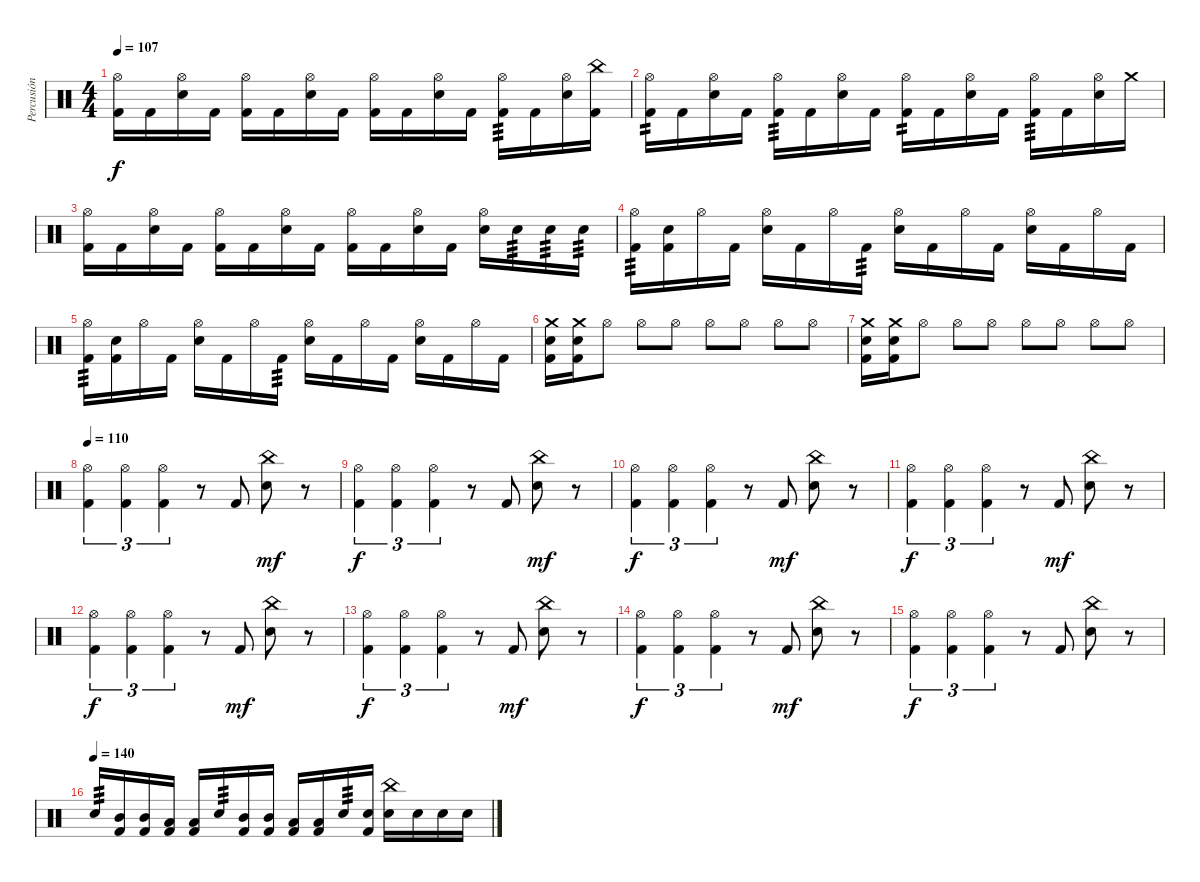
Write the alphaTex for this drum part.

\track ("Percusión" "Percusión") {instrument percussion}
\staff {score}
\articulation defaults
\ts (4 4)
\tempo 107
\clef neutral
\ks c
("Hi-Hat (open)" "Kick (hit) 2").16{dy f} "Kick (hit) 2".16 ("Hi-Hat (open)" "Electric Snare (hit)").16 "Kick (hit) 2".16 ("Hi-Hat (open)" "Kick (hit) 2").16 "Kick (hit) 2".16 ("Hi-Hat (open)" "Electric Snare (hit)").16 "Kick (hit) 2".16 ("Hi-Hat (open)" "Kick (hit) 2").16 "Kick (hit) 2".16 ("Hi-Hat (open)" "Electric Snare (hit)").16 "Kick (hit) 2".16 ("Hi-Hat (open)" "Kick (hit) 2").16{tp 3} "Kick (hit) 2".16 ("Hi-Hat (open)" "Electric Snare (hit)").16 ("China (hit)" "Kick (hit) 2").16 |
("Hi-Hat (open)" "Kick (hit) 2").16{tp 2} "Kick (hit) 2".16 ("Hi-Hat (open)" "Electric Snare (hit)").16 "Kick (hit) 2".16 ("Hi-Hat (open)" "Kick (hit) 2").16{tp 3} "Kick (hit) 2".16 ("Hi-Hat (open)" "Electric Snare (hit)").16 "Kick (hit) 2".16 ("Hi-Hat (open)" "Kick (hit) 2").16{tp 2} "Kick (hit) 2".16 ("Hi-Hat (open)" "Electric Snare (hit)").16 "Kick (hit) 2".16 ("Hi-Hat (open)" "Kick (hit) 2").16{tp 3} "Kick (hit) 2".16 ("Hi-Hat (open)" "Electric Snare (hit)").16 "Crash medium (hit)".16 |
("Hi-Hat (open)" "Kick (hit) 2").16 "Kick (hit) 2".16 ("Hi-Hat (open)" "Electric Snare (hit)").16 "Kick (hit) 2".16 ("Hi-Hat (open)" "Kick (hit) 2").16 "Kick (hit) 2".16 ("Hi-Hat (open)" "Electric Snare (hit)").16 "Kick (hit) 2".16 ("Hi-Hat (open)" "Kick (hit) 2").16 "Kick (hit) 2".16 ("Hi-Hat (open)" "Electric Snare (hit)").16 "Kick (hit) 2".16 ("Hi-Hat (open)" "Electric Snare (hit)").16 "Electric Snare (hit)".16{tp 3} "Electric Snare (hit)".16{tp 3} "Electric Snare (hit)".16{tp 3} |
("Hi-Hat (open)" "Kick (hit) 2").16{tp 3} ("Electric Snare (hit)" "Kick (hit) 2").16 "Hi-Hat (open)".16 "Kick (hit) 2".16 ("Hi-Hat (open)" "Electric Snare (hit)").16 "Kick (hit) 2".16 "Hi-Hat (open)".16 "Kick (hit) 2".16{tp 3} ("Hi-Hat (open)" "Electric Snare (hit)").16 "Kick (hit) 2".16 "Hi-Hat (open)".16 "Kick (hit) 2".16 ("Hi-Hat (open)" "Electric Snare (hit)").16 "Kick (hit) 2".16 "Hi-Hat (open)".16 "Kick (hit) 2".16 |
("Hi-Hat (open)" "Kick (hit) 2").16{tp 3} ("Electric Snare (hit)" "Kick (hit) 2").16 "Hi-Hat (open)".16 "Kick (hit) 2".16 ("Hi-Hat (open)" "Electric Snare (hit)").16 "Kick (hit) 2".16 "Hi-Hat (open)".16 "Kick (hit) 2".16{tp 3} ("Hi-Hat (open)" "Electric Snare (hit)").16 "Kick (hit) 2".16 "Hi-Hat (open)".16 "Kick (hit) 2".16 ("Hi-Hat (open)" "Electric Snare (hit)").16 "Kick (hit) 2".16 "Hi-Hat (open)".16 "Kick (hit) 2".16 |
("Crash medium (hit)" "Electric Snare (hit)" "Kick (hit) 2").16 ("Crash medium (hit)" "Electric Snare (hit)" "Kick (hit) 2").16 "Hi-Hat (open)".8 "Hi-Hat (open)".8 "Hi-Hat (open)".8 "Hi-Hat (open)".8 "Hi-Hat (open)".8 "Hi-Hat (open)".8 "Hi-Hat (open)".8 |
("Crash medium (hit)" "Electric Snare (hit)" "Kick (hit) 2").16 ("Crash medium (hit)" "Electric Snare (hit)" "Kick (hit) 2").16 "Hi-Hat (open)".8 "Hi-Hat (open)".8 "Hi-Hat (open)".8 "Hi-Hat (open)".8 "Hi-Hat (open)".8 "Hi-Hat (open)".8 "Hi-Hat (open)".8 |
\tempo 110
("Hi-Hat (open)" "Kick (hit) 2").4{tu (3 2)} ("Hi-Hat (open)" "Kick (hit) 2").4{tu (3 2)} ("Hi-Hat (open)" "Kick (hit) 2").4{tu (3 2)} r.8 "Kick (hit) 2".8 ("China (hit)" "Electric Snare (hit)").8{dy mf} r.8 |
("Hi-Hat (open)" "Kick (hit) 2").4{tu (3 2) dy f} ("Hi-Hat (open)" "Kick (hit) 2").4{tu (3 2)} ("Hi-Hat (open)" "Kick (hit) 2").4{tu (3 2)} r.8 "Kick (hit) 2".8 ("China (hit)" "Electric Snare (hit)").8{dy mf} r.8 |
("Hi-Hat (open)" "Kick (hit) 2").4{tu (3 2) dy f} ("Hi-Hat (open)" "Kick (hit) 2").4{tu (3 2)} ("Hi-Hat (open)" "Kick (hit) 2").4{tu (3 2)} r.8 "Kick (hit) 2".8{dy mf} ("China (hit)" "Electric Snare (hit)").8 r.8 |
("Hi-Hat (open)" "Kick (hit) 2").4{tu (3 2) dy f} ("Hi-Hat (open)" "Kick (hit) 2").4{tu (3 2)} ("Hi-Hat (open)" "Kick (hit) 2").4{tu (3 2)} r.8 "Kick (hit) 2".8{dy mf} ("China (hit)" "Electric Snare (hit)").8 r.8 |
("Hi-Hat (open)" "Kick (hit) 2").4{tu (3 2) dy f} ("Hi-Hat (open)" "Kick (hit) 2").4{tu (3 2)} ("Hi-Hat (open)" "Kick (hit) 2").4{tu (3 2)} r.8 "Kick (hit) 2".8{dy mf} ("China (hit)" "Electric Snare (hit)").8 r.8 |
("Hi-Hat (open)" "Kick (hit) 2").4{tu (3 2) dy f} ("Hi-Hat (open)" "Kick (hit) 2").4{tu (3 2)} ("Hi-Hat (open)" "Kick (hit) 2").4{tu (3 2)} r.8 "Kick (hit) 2".8{dy mf} ("China (hit)" "Electric Snare (hit)").8 r.8 |
("Hi-Hat (open)" "Kick (hit) 2").4{tu (3 2) dy f} ("Hi-Hat (open)" "Kick (hit) 2").4{tu (3 2)} ("Hi-Hat (open)" "Kick (hit) 2").4{tu (3 2)} r.8 "Kick (hit) 2".8{dy mf} ("China (hit)" "Electric Snare (hit)").8 r.8 |
("Hi-Hat (open)" "Kick (hit) 2").4{tu (3 2) dy f} ("Hi-Hat (open)" "Kick (hit) 2").4{tu (3 2)} ("Hi-Hat (open)" "Kick (hit) 2").4{tu (3 2)} r.8 "Kick (hit) 2".8 ("China (hit)" "Electric Snare (hit)").8 r.8 |
\tempo 107
\tempo (140)
"Electric Snare (hit)".16{tp 3} ("Mid Tom (hit)" "Kick (hit) 2").16 ("Mid Tom (hit)" "Kick (hit) 2").16 ("Low Tom (hit)" "Kick (hit) 2").16 ("Low Tom (hit)" "Kick (hit) 2").16 "Electric Snare (hit)".16{tp 3} ("Mid Tom (hit)" "Kick (hit) 2").16 ("Mid Tom (hit)" "Kick (hit) 2").16 ("Low Tom (hit)" "Kick (hit) 2").16 ("Low Tom (hit)" "Kick (hit) 2").16 "Electric Snare (hit)".16{tp 3} ("Electric Snare (hit)" "Kick (hit) 2").16 ("China (hit)" "Electric Snare (hit)").16 "Electric Snare (hit)".16 "Electric Snare (hit)".16 "Electric Snare (hit)".16
